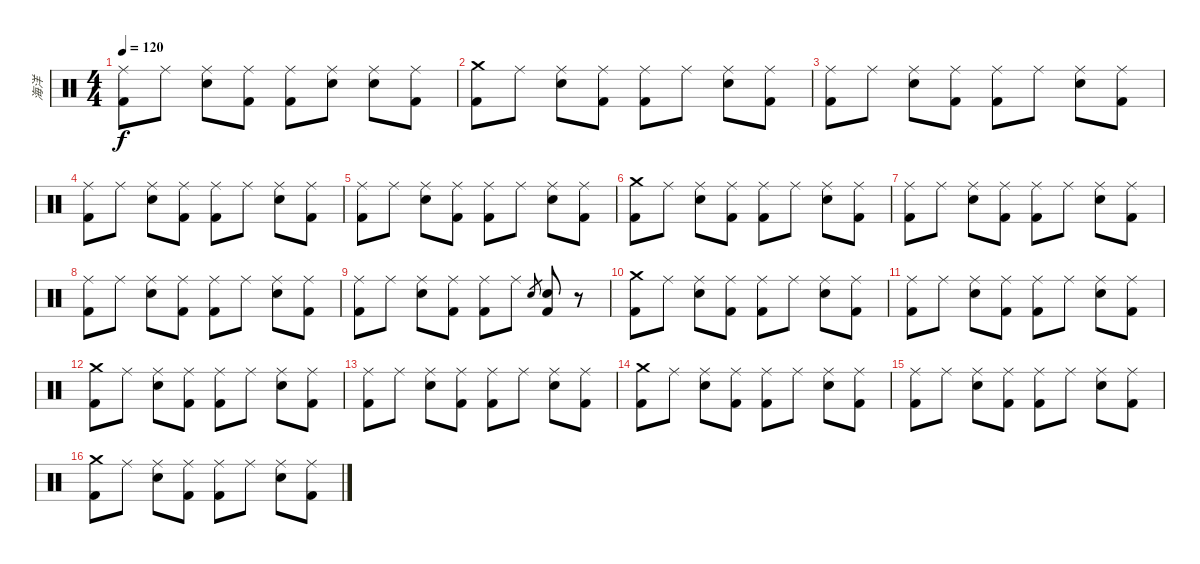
\track ("海洋" "海洋") {instrument percussion}
\staff {score}
\articulation defaults
\ts (4 4)
\tempo 120
\clef neutral
\ks c
("Ride (middle)" "Kick (hit) 2").8{dy f} "Ride (middle)".8 ("Ride (middle)" "Electric Snare (hit)").8 ("Ride (middle)" "Kick (hit) 2").8 ("Ride (middle)" "Kick (hit) 2").8 ("Ride (middle)" "Electric Snare (hit)").8 ("Ride (middle)" "Electric Snare (hit)").8 ("Ride (middle)" "Kick (hit) 2").8 |
("Crash medium (hit)" "Kick (hit) 2").8 "Ride (middle)".8 ("Ride (middle)" "Electric Snare (hit)").8 ("Ride (middle)" "Kick (hit) 2").8 ("Ride (middle)" "Kick (hit) 2").8 "Ride (middle)".8 ("Ride (middle)" "Electric Snare (hit)").8 ("Ride (middle)" "Kick (hit) 2").8 |
("Ride (middle)" "Kick (hit) 2").8 "Ride (middle)".8 ("Ride (middle)" "Electric Snare (hit)").8 ("Ride (middle)" "Kick (hit) 2").8 ("Ride (middle)" "Kick (hit) 2").8 "Ride (middle)".8 ("Ride (middle)" "Electric Snare (hit)").8 ("Ride (middle)" "Kick (hit) 2").8 |
("Ride (middle)" "Kick (hit) 2").8 "Ride (middle)".8 ("Ride (middle)" "Electric Snare (hit)").8 ("Ride (middle)" "Kick (hit) 2").8 ("Ride (middle)" "Kick (hit) 2").8 "Ride (middle)".8 ("Ride (middle)" "Electric Snare (hit)").8 ("Ride (middle)" "Kick (hit) 2").8 |
("Ride (middle)" "Kick (hit) 2").8 "Ride (middle)".8 ("Ride (middle)" "Electric Snare (hit)").8 ("Ride (middle)" "Kick (hit) 2").8 ("Ride (middle)" "Kick (hit) 2").8 "Ride (middle)".8 ("Ride (middle)" "Electric Snare (hit)").8 ("Ride (middle)" "Kick (hit) 2").8 |
("Crash medium (hit)" "Kick (hit) 2").8 "Ride (middle)".8 ("Ride (middle)" "Electric Snare (hit)").8 ("Ride (middle)" "Kick (hit) 2").8 ("Ride (middle)" "Kick (hit) 2").8 "Ride (middle)".8 ("Ride (middle)" "Electric Snare (hit)").8 ("Ride (middle)" "Kick (hit) 2").8 |
("Ride (middle)" "Kick (hit) 2").8 "Ride (middle)".8 ("Ride (middle)" "Electric Snare (hit)").8 ("Ride (middle)" "Kick (hit) 2").8 ("Ride (middle)" "Kick (hit) 2").8 "Ride (middle)".8 ("Ride (middle)" "Electric Snare (hit)").8 ("Ride (middle)" "Kick (hit) 2").8 |
("Ride (middle)" "Kick (hit) 2").8 "Ride (middle)".8 ("Ride (middle)" "Electric Snare (hit)").8 ("Ride (middle)" "Kick (hit) 2").8 ("Ride (middle)" "Kick (hit) 2").8 "Ride (middle)".8 ("Ride (middle)" "Electric Snare (hit)").8 ("Ride (middle)" "Kick (hit) 2").8 |
("Ride (middle)" "Kick (hit) 2").8 "Ride (middle)".8 ("Ride (middle)" "Electric Snare (hit)").8 ("Ride (middle)" "Kick (hit) 2").8 ("Ride (middle)" "Kick (hit) 2").8 "Ride (middle)".8 "Electric Snare (hit)".8{gr} ("Electric Snare (hit)" "Kick (hit) 2").8 r.8 |
("Crash medium (hit)" "Kick (hit) 2").8 "Ride (middle)".8 ("Ride (middle)" "Electric Snare (hit)").8 ("Ride (middle)" "Kick (hit) 2").8 ("Ride (middle)" "Kick (hit) 2").8 "Ride (middle)".8 ("Ride (middle)" "Electric Snare (hit)").8 ("Ride (middle)" "Kick (hit) 2").8 |
("Ride (middle)" "Kick (hit) 2").8 "Ride (middle)".8 ("Ride (middle)" "Electric Snare (hit)").8 ("Ride (middle)" "Kick (hit) 2").8 ("Ride (middle)" "Kick (hit) 2").8 "Ride (middle)".8 ("Ride (middle)" "Electric Snare (hit)").8 ("Ride (middle)" "Kick (hit) 2").8 |
("Crash medium (hit)" "Kick (hit) 2").8 "Ride (middle)".8 ("Ride (middle)" "Electric Snare (hit)").8 ("Ride (middle)" "Kick (hit) 2").8 ("Ride (middle)" "Kick (hit) 2").8 "Ride (middle)".8 ("Ride (middle)" "Electric Snare (hit)").8 ("Ride (middle)" "Kick (hit) 2").8 |
("Ride (middle)" "Kick (hit) 2").8 "Ride (middle)".8 ("Ride (middle)" "Electric Snare (hit)").8 ("Ride (middle)" "Kick (hit) 2").8 ("Ride (middle)" "Kick (hit) 2").8 "Ride (middle)".8 ("Ride (middle)" "Electric Snare (hit)").8 ("Ride (middle)" "Kick (hit) 2").8 |
("Crash medium (hit)" "Kick (hit) 2").8 "Ride (middle)".8 ("Ride (middle)" "Electric Snare (hit)").8 ("Ride (middle)" "Kick (hit) 2").8 ("Ride (middle)" "Kick (hit) 2").8 "Ride (middle)".8 ("Ride (middle)" "Electric Snare (hit)").8 ("Ride (middle)" "Kick (hit) 2").8 |
("Ride (middle)" "Kick (hit) 2").8 "Ride (middle)".8 ("Ride (middle)" "Electric Snare (hit)").8 ("Ride (middle)" "Kick (hit) 2").8 ("Ride (middle)" "Kick (hit) 2").8 "Ride (middle)".8 ("Ride (middle)" "Electric Snare (hit)").8 ("Ride (middle)" "Kick (hit) 2").8 |
("Crash medium (hit)" "Kick (hit) 2").8 "Ride (middle)".8 ("Ride (middle)" "Electric Snare (hit)").8 ("Ride (middle)" "Kick (hit) 2").8 ("Ride (middle)" "Kick (hit) 2").8 "Ride (middle)".8 ("Ride (middle)" "Electric Snare (hit)").8 ("Ride (middle)" "Kick (hit) 2").8
